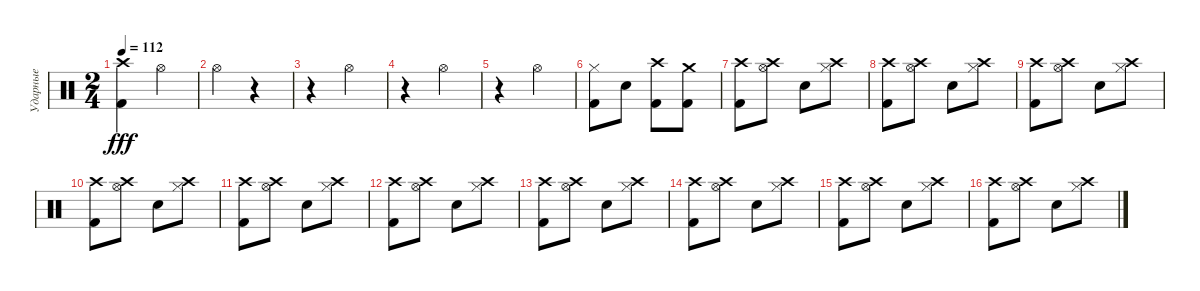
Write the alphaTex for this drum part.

\track ("Ударные" "Ударные") {instrument percussion}
\staff {score}
\articulation defaults
\ts (2 4)
\tempo 112
\clef neutral
\ks c
("Kick (hit) 2" "Crash high (hit)").4{dy fff} "Hi-Hat (open)".4 |
"Hi-Hat (open)".4 r.4 |
r.4 "Hi-Hat (open)".4 |
r.4 "Hi-Hat (open)".4 |
r.4 "Hi-Hat (open)".4 |
("Kick (hit) 2" "Hi-Hat (closed)").8 "Electric Snare (hit)".8 ("Crash high (hit)" "Kick (hit) 2").8 ("Crash medium (hit)" "Kick (hit) 2").8 |
("Kick (hit) 2" "Crash high (hit)").8 ("Hi-Hat (open)" "Crash high (hit)").8 "Electric Snare (hit)".8 ("Hi-Hat (closed)" "Crash high (hit)").8 |
("Kick (hit) 2" "Crash high (hit)").8 ("Hi-Hat (open)" "Crash high (hit)").8 "Electric Snare (hit)".8 ("Hi-Hat (closed)" "Crash high (hit)").8 |
("Kick (hit) 2" "Crash high (hit)").8 ("Hi-Hat (open)" "Crash high (hit)").8 "Electric Snare (hit)".8 ("Hi-Hat (closed)" "Crash high (hit)").8 |
("Kick (hit) 2" "Crash high (hit)").8 ("Hi-Hat (open)" "Crash high (hit)").8 "Electric Snare (hit)".8 ("Hi-Hat (closed)" "Crash high (hit)").8 |
("Kick (hit) 2" "Crash high (hit)").8 ("Hi-Hat (open)" "Crash high (hit)").8 "Electric Snare (hit)".8 ("Hi-Hat (closed)" "Crash high (hit)").8 |
("Kick (hit) 2" "Crash high (hit)").8 ("Hi-Hat (open)" "Crash high (hit)").8 "Electric Snare (hit)".8 ("Hi-Hat (closed)" "Crash high (hit)").8 |
("Kick (hit) 2" "Crash high (hit)").8 ("Hi-Hat (open)" "Crash high (hit)").8 "Electric Snare (hit)".8 ("Hi-Hat (closed)" "Crash high (hit)").8 |
("Kick (hit) 2" "Crash high (hit)").8 ("Hi-Hat (open)" "Crash high (hit)").8 "Electric Snare (hit)".8 ("Hi-Hat (closed)" "Crash high (hit)").8 |
("Kick (hit) 2" "Crash high (hit)").8 ("Hi-Hat (open)" "Crash high (hit)").8 "Electric Snare (hit)".8 ("Hi-Hat (closed)" "Crash high (hit)").8 |
("Kick (hit) 2" "Crash high (hit)").8 ("Hi-Hat (open)" "Crash high (hit)").8 "Electric Snare (hit)".8 ("Hi-Hat (closed)" "Crash high (hit)").8
